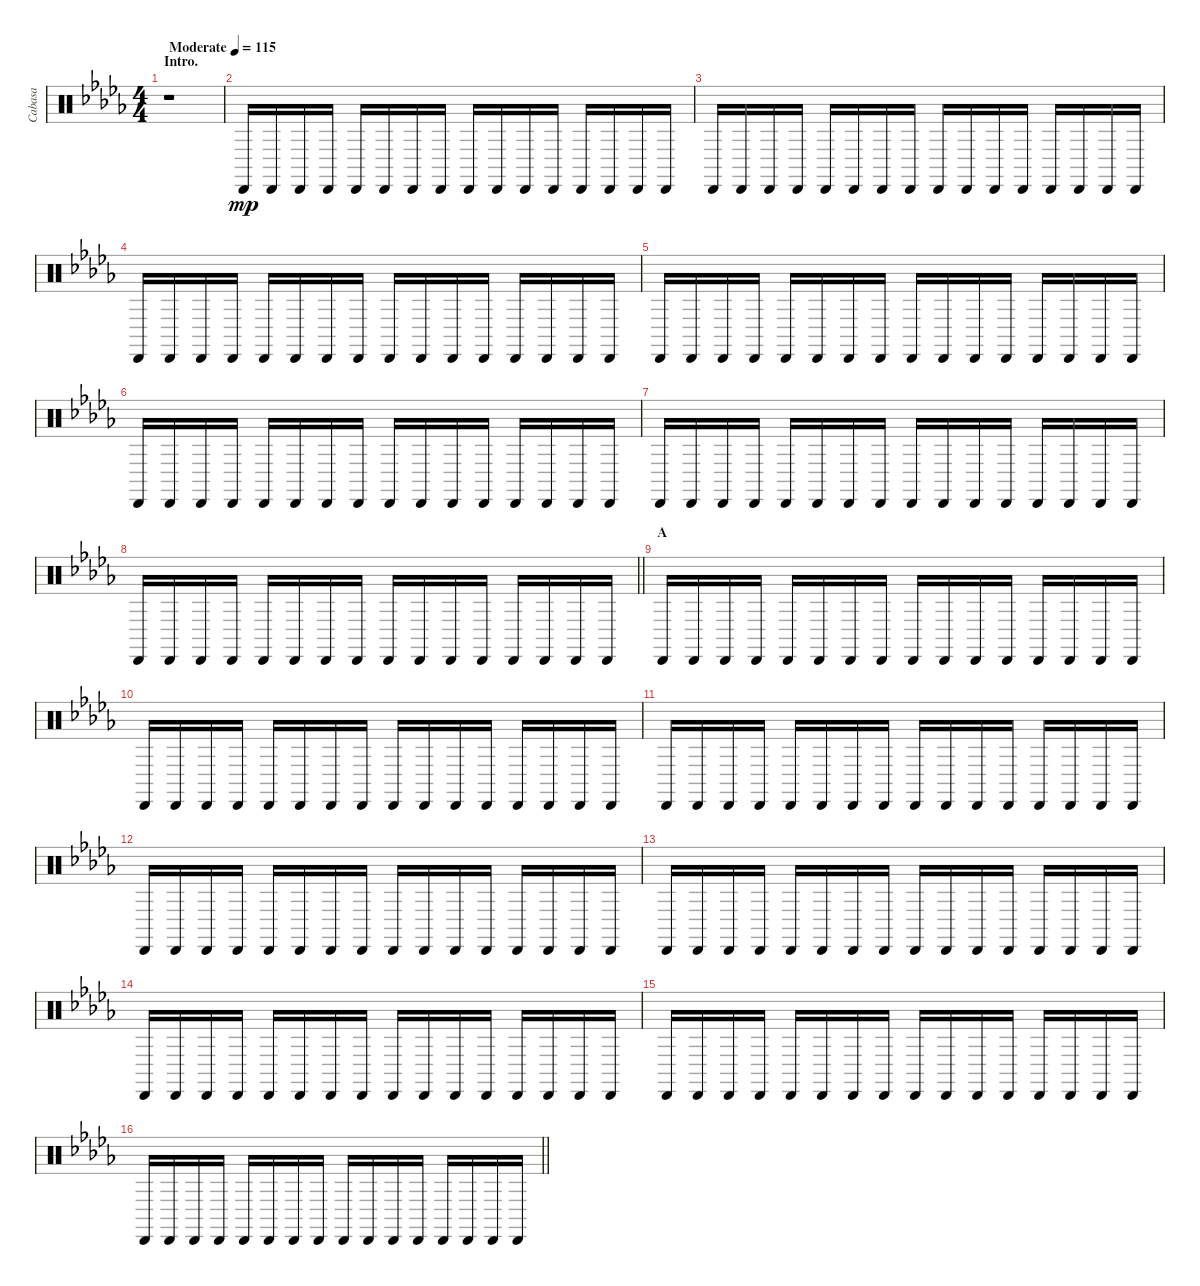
\track ("Cabasa" "Cabasa") {instrument percussion}
\staff {score}
\articulation defaults
\ts (4 4)
\section ("" "Intro.")
\tempo (115 "Moderate")
\clef neutral
\ks db
r.1{dy mp volume 0} |
"Cabasa (hit)".16{volume 14} "Cabasa (hit)".16 "Cabasa (hit)".16 "Cabasa (hit)".16 "Cabasa (hit)".16 "Cabasa (hit)".16 "Cabasa (hit)".16 "Cabasa (hit)".16 "Cabasa (hit)".16 "Cabasa (hit)".16 "Cabasa (hit)".16 "Cabasa (hit)".16 "Cabasa (hit)".16 "Cabasa (hit)".16 "Cabasa (hit)".16 "Cabasa (hit)".16 |
"Cabasa (hit)".16 "Cabasa (hit)".16 "Cabasa (hit)".16 "Cabasa (hit)".16 "Cabasa (hit)".16 "Cabasa (hit)".16 "Cabasa (hit)".16 "Cabasa (hit)".16 "Cabasa (hit)".16 "Cabasa (hit)".16 "Cabasa (hit)".16 "Cabasa (hit)".16 "Cabasa (hit)".16 "Cabasa (hit)".16 "Cabasa (hit)".16 "Cabasa (hit)".16 |
"Cabasa (hit)".16 "Cabasa (hit)".16 "Cabasa (hit)".16 "Cabasa (hit)".16 "Cabasa (hit)".16 "Cabasa (hit)".16 "Cabasa (hit)".16 "Cabasa (hit)".16 "Cabasa (hit)".16 "Cabasa (hit)".16 "Cabasa (hit)".16 "Cabasa (hit)".16 "Cabasa (hit)".16 "Cabasa (hit)".16 "Cabasa (hit)".16 "Cabasa (hit)".16 |
"Cabasa (hit)".16 "Cabasa (hit)".16 "Cabasa (hit)".16 "Cabasa (hit)".16 "Cabasa (hit)".16 "Cabasa (hit)".16 "Cabasa (hit)".16 "Cabasa (hit)".16 "Cabasa (hit)".16 "Cabasa (hit)".16 "Cabasa (hit)".16 "Cabasa (hit)".16 "Cabasa (hit)".16 "Cabasa (hit)".16 "Cabasa (hit)".16 "Cabasa (hit)".16 |
"Cabasa (hit)".16 "Cabasa (hit)".16 "Cabasa (hit)".16 "Cabasa (hit)".16 "Cabasa (hit)".16 "Cabasa (hit)".16 "Cabasa (hit)".16 "Cabasa (hit)".16 "Cabasa (hit)".16 "Cabasa (hit)".16 "Cabasa (hit)".16 "Cabasa (hit)".16 "Cabasa (hit)".16 "Cabasa (hit)".16 "Cabasa (hit)".16 "Cabasa (hit)".16 |
"Cabasa (hit)".16 "Cabasa (hit)".16 "Cabasa (hit)".16 "Cabasa (hit)".16 "Cabasa (hit)".16 "Cabasa (hit)".16 "Cabasa (hit)".16 "Cabasa (hit)".16 "Cabasa (hit)".16 "Cabasa (hit)".16 "Cabasa (hit)".16 "Cabasa (hit)".16 "Cabasa (hit)".16 "Cabasa (hit)".16 "Cabasa (hit)".16 "Cabasa (hit)".16 |
\barLineRight lightlight "Cabasa (hit)".16 "Cabasa (hit)".16 "Cabasa (hit)".16 "Cabasa (hit)".16 "Cabasa (hit)".16 "Cabasa (hit)".16 "Cabasa (hit)".16 "Cabasa (hit)".16 "Cabasa (hit)".16 "Cabasa (hit)".16 "Cabasa (hit)".16 "Cabasa (hit)".16 "Cabasa (hit)".16 "Cabasa (hit)".16 "Cabasa (hit)".16 "Cabasa (hit)".16
|
\section ("" "A")
"Cabasa (hit)".16 "Cabasa (hit)".16 "Cabasa (hit)".16 "Cabasa (hit)".16 "Cabasa (hit)".16 "Cabasa (hit)".16 "Cabasa (hit)".16 "Cabasa (hit)".16 "Cabasa (hit)".16 "Cabasa (hit)".16 "Cabasa (hit)".16 "Cabasa (hit)".16 "Cabasa (hit)".16 "Cabasa (hit)".16 "Cabasa (hit)".16 "Cabasa (hit)".16 |
"Cabasa (hit)".16 "Cabasa (hit)".16 "Cabasa (hit)".16 "Cabasa (hit)".16 "Cabasa (hit)".16 "Cabasa (hit)".16 "Cabasa (hit)".16 "Cabasa (hit)".16 "Cabasa (hit)".16 "Cabasa (hit)".16 "Cabasa (hit)".16 "Cabasa (hit)".16 "Cabasa (hit)".16 "Cabasa (hit)".16 "Cabasa (hit)".16 "Cabasa (hit)".16 |
"Cabasa (hit)".16 "Cabasa (hit)".16 "Cabasa (hit)".16 "Cabasa (hit)".16 "Cabasa (hit)".16 "Cabasa (hit)".16 "Cabasa (hit)".16 "Cabasa (hit)".16 "Cabasa (hit)".16 "Cabasa (hit)".16 "Cabasa (hit)".16 "Cabasa (hit)".16 "Cabasa (hit)".16 "Cabasa (hit)".16 "Cabasa (hit)".16 "Cabasa (hit)".16 |
"Cabasa (hit)".16 "Cabasa (hit)".16 "Cabasa (hit)".16 "Cabasa (hit)".16 "Cabasa (hit)".16 "Cabasa (hit)".16 "Cabasa (hit)".16 "Cabasa (hit)".16 "Cabasa (hit)".16 "Cabasa (hit)".16 "Cabasa (hit)".16 "Cabasa (hit)".16 "Cabasa (hit)".16 "Cabasa (hit)".16 "Cabasa (hit)".16 "Cabasa (hit)".16 |
"Cabasa (hit)".16 "Cabasa (hit)".16 "Cabasa (hit)".16 "Cabasa (hit)".16 "Cabasa (hit)".16 "Cabasa (hit)".16 "Cabasa (hit)".16 "Cabasa (hit)".16 "Cabasa (hit)".16 "Cabasa (hit)".16 "Cabasa (hit)".16 "Cabasa (hit)".16 "Cabasa (hit)".16 "Cabasa (hit)".16 "Cabasa (hit)".16 "Cabasa (hit)".16 |
"Cabasa (hit)".16 "Cabasa (hit)".16 "Cabasa (hit)".16 "Cabasa (hit)".16 "Cabasa (hit)".16 "Cabasa (hit)".16 "Cabasa (hit)".16 "Cabasa (hit)".16 "Cabasa (hit)".16 "Cabasa (hit)".16 "Cabasa (hit)".16 "Cabasa (hit)".16 "Cabasa (hit)".16 "Cabasa (hit)".16 "Cabasa (hit)".16 "Cabasa (hit)".16 |
"Cabasa (hit)".16 "Cabasa (hit)".16 "Cabasa (hit)".16 "Cabasa (hit)".16 "Cabasa (hit)".16 "Cabasa (hit)".16 "Cabasa (hit)".16 "Cabasa (hit)".16 "Cabasa (hit)".16 "Cabasa (hit)".16 "Cabasa (hit)".16 "Cabasa (hit)".16 "Cabasa (hit)".16 "Cabasa (hit)".16 "Cabasa (hit)".16 "Cabasa (hit)".16 |
\barLineRight lightlight "Cabasa (hit)".16 "Cabasa (hit)".16 "Cabasa (hit)".16 "Cabasa (hit)".16 "Cabasa (hit)".16 "Cabasa (hit)".16 "Cabasa (hit)".16 "Cabasa (hit)".16 "Cabasa (hit)".16 "Cabasa (hit)".16 "Cabasa (hit)".16 "Cabasa (hit)".16 "Cabasa (hit)".16 "Cabasa (hit)".16 "Cabasa (hit)".16 "Cabasa (hit)".16
